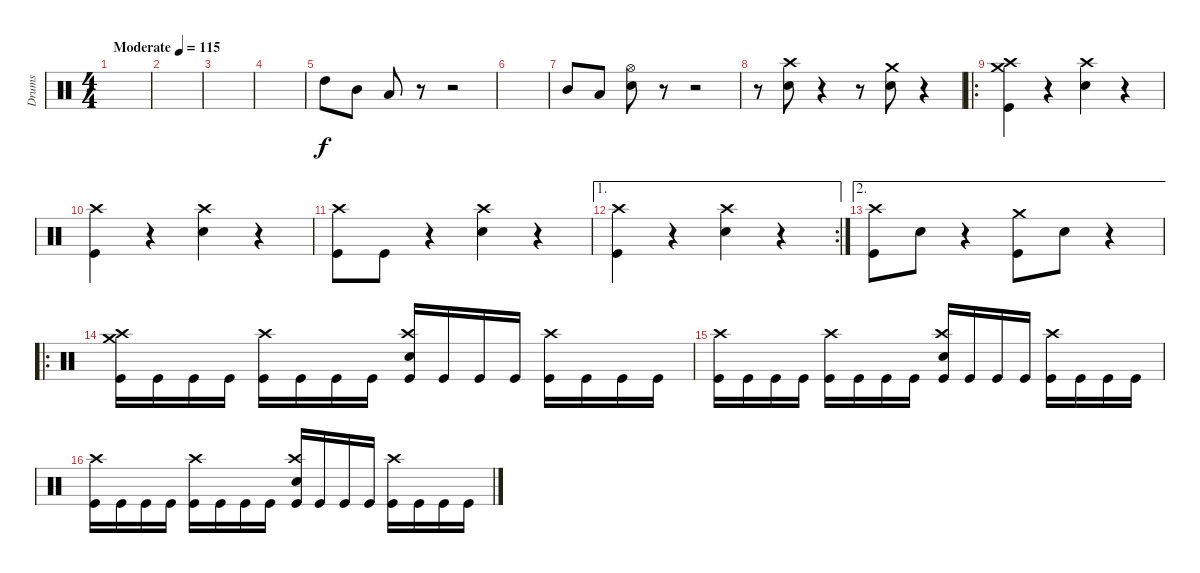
\track ("Drums" "Drums") {instrument percussion}
\staff
\articulation defaults
\ts (4 4)
\tempo (115 "Moderate")
\clef neutral
\ks c
|
|
|
|
"High Tom (hit)".8 "Mid Tom (hit)".8 "Low Tom (hit)".8 r.8 r.2 |
|
"Mid Tom (hit)".8 "Low Tom (hit)".8 ("Hi-Hat (open)" "Snare (hit) 2").8 r.8 r.2 |
r.8 ("Crash high (hit)" "Snare (hit) 2").8 r.4 r.8 ("Crash medium (hit)" "Snare (hit) 2").8 r.4 |
\ro
("Crash medium (hit)" "Crash high (hit)" "Kick (hit)").4 r.4 ("Crash high (hit)" "Snare (hit) 2").4 r.4 |
("Crash high (hit)" "Kick (hit)").4 r.4 ("Crash high (hit)" "Snare (hit) 2").4 r.4 |
("Crash high (hit)" "Kick (hit)").8 "Kick (hit)".8 r.4 ("Crash high (hit)" "Snare (hit) 2").4 r.4 |
\ae 1
\rc 2
("Crash high (hit)" "Kick (hit)").4 r.4 ("Crash high (hit)" "Snare (hit) 2").4 r.4 |
\ae 2
("Crash high (hit)" "Kick (hit)").8 "Snare (hit) 2".8 r.4 ("Crash medium (hit)" "Kick (hit)").8 "Snare (hit) 2".8 r.4 |
\ro
("Crash high (hit)" "Crash medium (hit)" "Kick (hit)").16 "Kick (hit)".16 "Kick (hit)".16 "Kick (hit)".16 ("Crash high (hit)" "Kick (hit)").16 "Kick (hit)".16 "Kick (hit)".16 "Kick (hit)".16 ("Crash high (hit)" "Snare (hit) 2" "Kick (hit)").16 "Kick (hit)".16 "Kick (hit)".16 "Kick (hit)".16 ("Crash high (hit)" "Kick (hit)").16 "Kick (hit)".16 "Kick (hit)".16 "Kick (hit)".16 |
("Crash high (hit)" "Kick (hit)").16 "Kick (hit)".16 "Kick (hit)".16 "Kick (hit)".16 ("Crash high (hit)" "Kick (hit)").16 "Kick (hit)".16 "Kick (hit)".16 "Kick (hit)".16 ("Crash high (hit)" "Snare (hit) 2" "Kick (hit)").16 "Kick (hit)".16 "Kick (hit)".16 "Kick (hit)".16 ("Crash high (hit)" "Kick (hit)").16 "Kick (hit)".16 "Kick (hit)".16 "Kick (hit)".16 |
("Crash high (hit)" "Kick (hit)").16 "Kick (hit)".16 "Kick (hit)".16 "Kick (hit)".16 ("Crash high (hit)" "Kick (hit)").16 "Kick (hit)".16 "Kick (hit)".16 "Kick (hit)".16 ("Crash high (hit)" "Snare (hit) 2" "Kick (hit)").16 "Kick (hit)".16 "Kick (hit)".16 "Kick (hit)".16 ("Crash high (hit)" "Kick (hit)").16 "Kick (hit)".16 "Kick (hit)".16 "Kick (hit)".16
